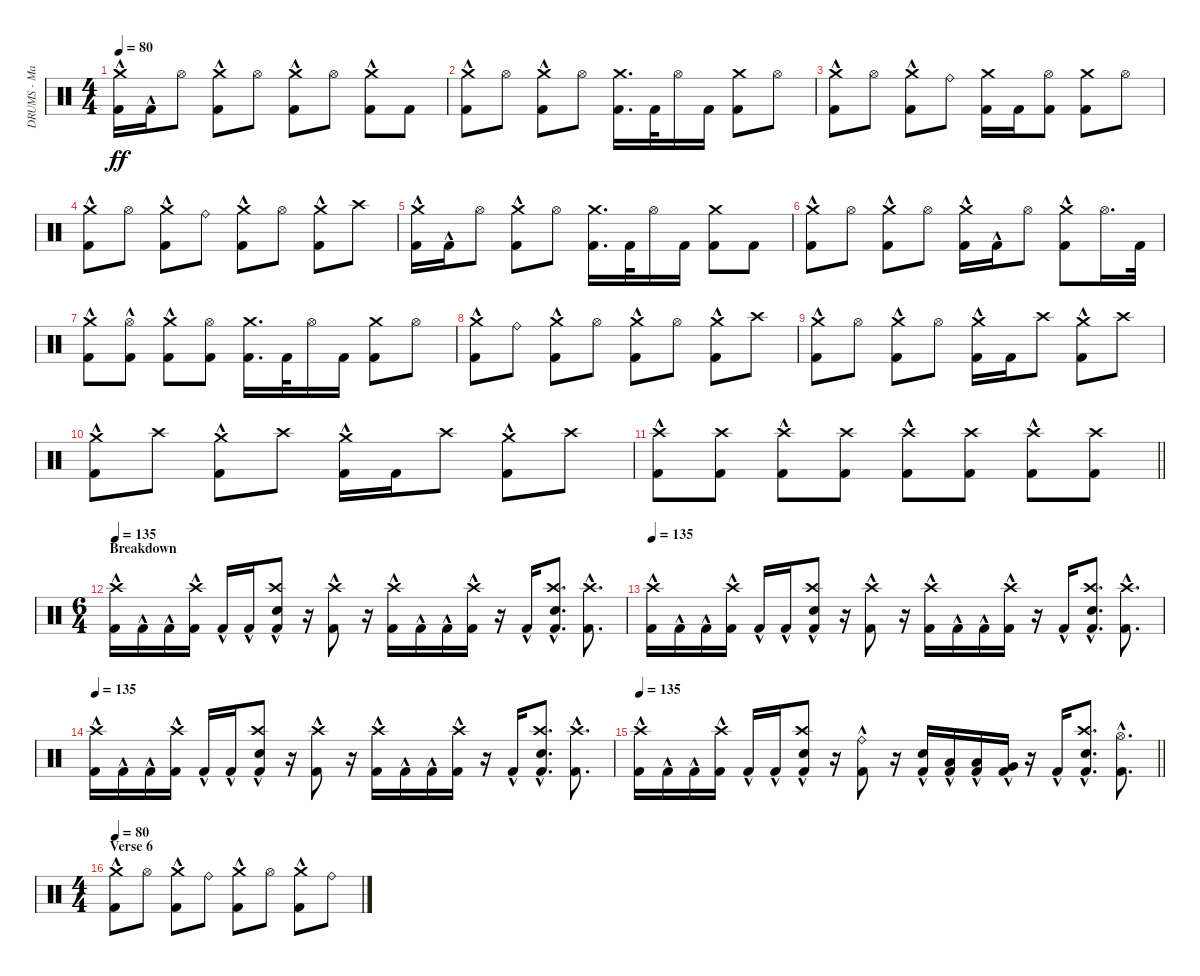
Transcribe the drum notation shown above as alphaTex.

\track ("DRUMS - Mario Duplantier" "DRUMS - Ma") {instrument percussion}
\staff {score}
\articulation defaults
\ts (4 4)
\tempo 80
\clef neutral
\ks c
("Crash medium (hit)" "Kick (hit) 2"{hac}).16{dy ff} "Kick (hit) 2"{hac}.16 "Hi-Hat (open)".8 ("Crash medium (hit)" "Kick (hit) 2"{hac}).8 "Hi-Hat (open)".8 ("Crash medium (hit)" "Kick (hit) 2"{hac}).8 "Hi-Hat (open)".8 ("Crash medium (hit)" "Kick (hit) 2"{hac}).8 "Kick (hit) 2".8 |
("Crash medium (hit)" "Kick (hit) 2"{hac}).8 "Hi-Hat (open)".8 ("Crash medium (hit)" "Kick (hit) 2"{hac}).8 "Hi-Hat (open)".8 ("Crash medium (hit)" "Kick (hit) 2").16{d} "Kick (hit) 2".32 "Hi-Hat (open)".16 "Kick (hit) 2".16 ("Crash medium (hit)" "Kick (hit) 2").8 "Hi-Hat (open)".8 |
("Crash medium (hit)" "Kick (hit) 2"{hac}).8 "Hi-Hat (open)".8 ("Crash medium (hit)" "Kick (hit) 2"{hac}).8 "Ride (bell)".8 ("Crash medium (hit)" "Kick (hit) 2").16 "Kick (hit) 2".16 ("Hi-Hat (open)" "Kick (hit) 2").8 ("Crash medium (hit)" "Kick (hit) 2").8 "Hi-Hat (open)".8 |
("Crash medium (hit)" "Kick (hit) 2"{hac}).8 "Hi-Hat (open)".8 ("Crash medium (hit)" "Kick (hit) 2"{hac}).8 "Ride (bell)".8 ("Crash medium (hit)" "Kick (hit) 2"{hac}).8 "Hi-Hat (open)".8 ("Crash medium (hit)" "Kick (hit) 2"{hac}).8 "Crash high (hit)".8 |
("Crash medium (hit)" "Kick (hit) 2"{hac}).16 "Kick (hit) 2"{hac}.16 "Hi-Hat (open)".8 ("Crash medium (hit)" "Kick (hit) 2"{hac}).8 "Hi-Hat (open)".8 ("Crash medium (hit)" "Kick (hit) 2").16{d} "Kick (hit) 2".32 "Hi-Hat (open)".16 "Kick (hit) 2".16 ("Crash medium (hit)" "Kick (hit) 2").8 "Kick (hit) 2".8 |
("Crash medium (hit)" "Kick (hit) 2"{hac}).8 "Hi-Hat (open)".8 ("Crash medium (hit)" "Kick (hit) 2"{hac}).8 "Hi-Hat (open)".8 ("Crash medium (hit)" "Kick (hit) 2"{hac}).16 "Kick (hit) 2"{hac}.16 "Hi-Hat (open)".8 ("Crash medium (hit)" "Kick (hit) 2"{hac}).8 "Hi-Hat (open)".16{d} "Kick (hit) 2".32 |
("Crash medium (hit)" "Kick (hit) 2"{hac}).8 ("Hi-Hat (open)" "Kick (hit) 2"{hac}).8 ("Crash medium (hit)" "Kick (hit) 2"{hac}).8 ("Hi-Hat (open)" "Kick (hit) 2").8 ("Crash medium (hit)" "Kick (hit) 2").16{d} "Kick (hit) 2".32 "Hi-Hat (open)".16 "Kick (hit) 2".16 ("Crash medium (hit)" "Kick (hit) 2").8 "Hi-Hat (open)".8 |
("Crash medium (hit)" "Kick (hit) 2"{hac}).8 "Ride (bell)".8 ("Crash medium (hit)" "Kick (hit) 2"{hac}).8 "Hi-Hat (open)".8 ("Crash medium (hit)" "Kick (hit) 2"{hac}).8 "Hi-Hat (open)".8 ("Crash medium (hit)" "Kick (hit) 2"{hac}).8 "Crash high (hit)".8 |
("Crash medium (hit)" "Kick (hit) 2"{hac}).8 "Hi-Hat (open)".8 ("Crash medium (hit)" "Kick (hit) 2"{hac}).8 "Hi-Hat (open)".8 ("Crash medium (hit)" "Kick (hit) 2"{hac}).16 "Kick (hit) 2".16 "Crash high (hit)".8 ("Crash medium (hit)" "Kick (hit) 2"{hac}).8 "Crash high (hit)".8 |
("Crash medium (hit)" "Kick (hit) 2"{hac}).8 "Crash high (hit)".8 ("Crash medium (hit)" "Kick (hit) 2"{hac}).8 "Crash high (hit)".8 ("Crash medium (hit)" "Kick (hit) 2"{hac}).16 "Kick (hit) 2".16 "Crash high (hit)".8 ("Crash medium (hit)" "Kick (hit) 2"{hac}).8 "Crash high (hit)".8 |
\barLineRight lightlight
("Crash high (hit)" "Kick (hit) 2"{hac}).8 ("Crash high (hit)" "Kick (hit) 2").8 ("Crash high (hit)" "Kick (hit) 2"{hac}).8 ("Crash high (hit)" "Kick (hit) 2").8 ("Crash high (hit)" "Kick (hit) 2"{hac}).8 ("Crash high (hit)" "Kick (hit) 2").8 ("Crash high (hit)" "Kick (hit) 2"{hac}).8 ("Crash high (hit)" "Kick (hit) 2").8 |
\ts (6 4)
\section ("" "Breakdown")
\tempo 135
("Crash high (hit)" "Kick (hit) 2"{hac}).16 "Kick (hit) 2"{hac}.16 "Kick (hit) 2"{hac}.16 ("Crash high (hit)" "Kick (hit) 2"{hac}).16 "Kick (hit) 2"{hac}.16 "Kick (hit) 2"{hac}.16 ("Crash high (hit)" "Electric Snare (hit)" "Kick (hit) 2"{hac}).8 r.16 ("Crash high (hit)" "Kick (hit) 2"{hac}).8 r.16 ("Crash high (hit)" "Kick (hit) 2"{hac}).16 "Kick (hit) 2"{hac}.16 "Kick (hit) 2"{hac}.16 ("Crash high (hit)" "Kick (hit) 2"{hac}).16 r.16 "Kick (hit) 2"{hac}.16 ("Crash high (hit)" "Electric Snare (hit)" "Kick (hit) 2"{hac}).8{d} ("Crash high (hit)" "Kick (hit) 2"{hac}).8{d} |
\tempo 135
("Crash high (hit)" "Kick (hit) 2"{hac}).16 "Kick (hit) 2"{hac}.16 "Kick (hit) 2"{hac}.16 ("Crash high (hit)" "Kick (hit) 2"{hac}).16 "Kick (hit) 2"{hac}.16 "Kick (hit) 2"{hac}.16 ("Crash high (hit)" "Electric Snare (hit)" "Kick (hit) 2"{hac}).8 r.16 ("Crash high (hit)" "Kick (hit) 2"{hac}).8 r.16 ("Crash high (hit)" "Kick (hit) 2"{hac}).16 "Kick (hit) 2"{hac}.16 "Kick (hit) 2"{hac}.16 ("Crash high (hit)" "Kick (hit) 2"{hac}).16 r.16 "Kick (hit) 2"{hac}.16 ("Crash high (hit)" "Electric Snare (hit)" "Kick (hit) 2"{hac}).8{d} ("Crash high (hit)" "Kick (hit) 2"{hac}).8{d} |
\tempo 135
("Crash high (hit)" "Kick (hit) 2"{hac}).16 "Kick (hit) 2"{hac}.16 "Kick (hit) 2"{hac}.16 ("Crash high (hit)" "Kick (hit) 2"{hac}).16 "Kick (hit) 2"{hac}.16 "Kick (hit) 2"{hac}.16 ("Crash high (hit)" "Electric Snare (hit)" "Kick (hit) 2"{hac}).8 r.16 ("Crash high (hit)" "Kick (hit) 2"{hac}).8 r.16 ("Crash high (hit)" "Kick (hit) 2"{hac}).16 "Kick (hit) 2"{hac}.16 "Kick (hit) 2"{hac}.16 ("Crash high (hit)" "Kick (hit) 2"{hac}).16 r.16 "Kick (hit) 2"{hac}.16 ("Crash high (hit)" "Electric Snare (hit)" "Kick (hit) 2"{hac}).8{d} ("Crash high (hit)" "Kick (hit) 2"{hac}).8{d} |
\tempo 135
\barLineRight lightlight
("Crash high (hit)" "Kick (hit) 2"{hac}).16 "Kick (hit) 2"{hac}.16 "Kick (hit) 2"{hac}.16 ("Crash high (hit)" "Kick (hit) 2"{hac}).16 "Kick (hit) 2"{hac}.16 "Kick (hit) 2"{hac}.16 ("Crash high (hit)" "Electric Snare (hit)" "Kick (hit) 2"{hac}).8 r.16 ("Ride (bell)" "Kick (hit) 2"{hac}).8 r.16 ("Electric Snare (hit)" "Kick (hit) 2"{hac}).16 ("Low Tom (hit)" "Kick (hit) 2"{hac}).16 ("Low Tom (hit)" "Kick (hit) 2"{hac}).16 ("Very Low Tom (hit)" "Kick (hit) 2"{hac}).16 r.16 "Kick (hit) 2"{hac}.16 ("Crash high (hit)" "Electric Snare (hit)" "Kick (hit) 2"{hac}).8{d} ("Hi-Hat (open)" "Kick (hit) 2"{hac}).8{d} |
\ts (4 4)
\section ("" "Verse 6")
\tempo 80
("Crash medium (hit)" "Kick (hit) 2"{hac}).8 "Hi-Hat (open)".8 ("Crash medium (hit)" "Kick (hit) 2"{hac}).8 "Ride (bell)".8 ("Crash medium (hit)" "Kick (hit) 2"{hac}).8 "Hi-Hat (open)".8 ("Crash medium (hit)" "Kick (hit) 2"{hac}).8 "Ride (bell)".8
